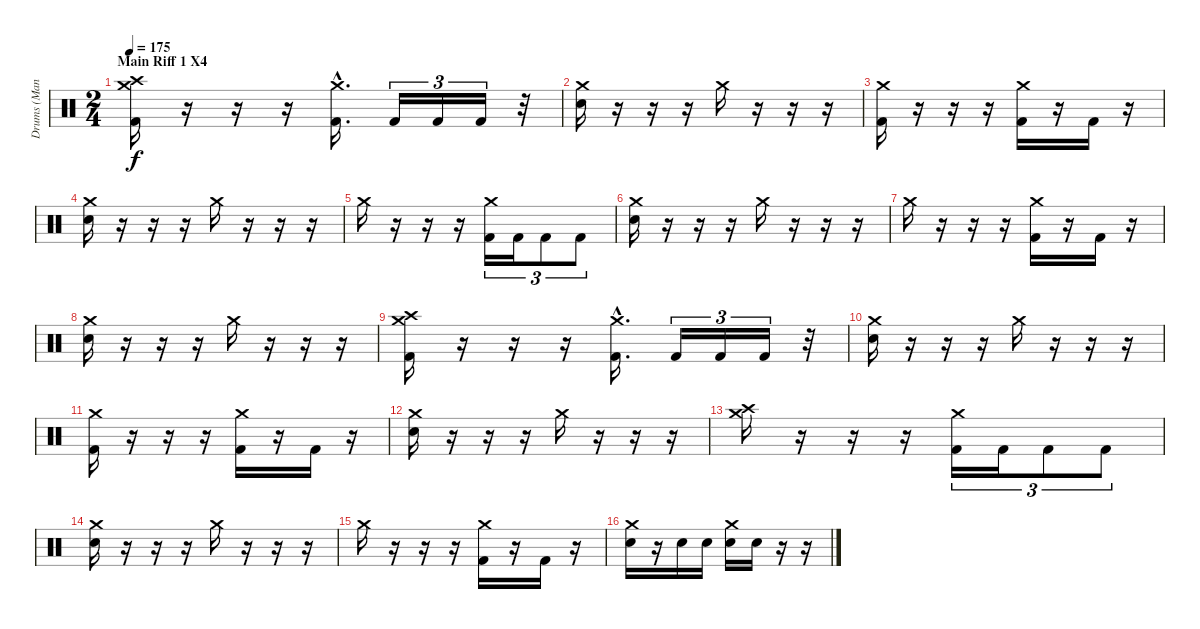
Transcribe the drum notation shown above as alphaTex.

\track ("Drums (Mancino)" "Drums (Man") {instrument percussion}
\staff {score}
\articulation defaults
\ts (2 4)
\section ("" "Main Riff 1 X4")
\tempo 175
\clef neutral
\ks c
("Crash medium (hit)" "Crash high (hit)" "Kick (hit) 2").16{dy f} r.16 r.16 r.16 ("Crash medium (hit)"{hac} "Kick (hit) 2"{hac}).16{d} "Kick (hit) 2".16{tu (3 2)} "Kick (hit) 2".16{tu (3 2)} "Kick (hit) 2".16{tu (3 2)} r.32 |
("Crash medium (hit)" "Electric Snare (hit)").16 r.16 r.16 r.16 "Crash medium (hit)".16 r.16 r.16 r.16 |
("Crash medium (hit)" "Kick (hit) 2").16 r.16 r.16 r.16 ("Crash medium (hit)" "Kick (hit) 2").16 r.16 "Kick (hit) 2".16 r.16 |
("Crash medium (hit)" "Electric Snare (hit)").16 r.16 r.16 r.16 "Crash medium (hit)".16 r.16 r.16 r.16 |
"Crash medium (hit)".16 r.16 r.16 r.16 ("Crash medium (hit)" "Kick (hit) 2").16{tu (3 2)} "Kick (hit) 2".16{tu (3 2)} "Kick (hit) 2".8{tu (3 2)} "Kick (hit) 2".8{tu (3 2)} |
("Crash medium (hit)" "Electric Snare (hit)").16 r.16 r.16 r.16 "Crash medium (hit)".16 r.16 r.16 r.16 |
"Crash medium (hit)".16 r.16 r.16 r.16 ("Crash medium (hit)" "Kick (hit) 2").16 r.16 "Kick (hit) 2".16 r.16 |
("Crash medium (hit)" "Electric Snare (hit)").16 r.16 r.16 r.16 "Crash medium (hit)".16 r.16 r.16 r.16 |
("Crash medium (hit)" "Crash high (hit)" "Kick (hit) 2").16 r.16 r.16 r.16 ("Crash medium (hit)"{hac} "Kick (hit) 2"{hac}).16{d} "Kick (hit) 2".16{tu (3 2)} "Kick (hit) 2".16{tu (3 2)} "Kick (hit) 2".16{tu (3 2)} r.32 |
("Crash medium (hit)" "Electric Snare (hit)").16 r.16 r.16 r.16 "Crash medium (hit)".16 r.16 r.16 r.16 |
("Crash medium (hit)" "Kick (hit) 2").16 r.16 r.16 r.16 ("Crash medium (hit)" "Kick (hit) 2").16 r.16 "Kick (hit) 2".16 r.16 |
("Crash medium (hit)" "Electric Snare (hit)").16 r.16 r.16 r.16 "Crash medium (hit)".16 r.16 r.16 r.16 |
("Crash medium (hit)" "Crash high (hit)").16 r.16 r.16 r.16 ("Crash medium (hit)" "Kick (hit) 2").16{tu (3 2)} "Kick (hit) 2".16{tu (3 2)} "Kick (hit) 2".8{tu (3 2)} "Kick (hit) 2".8{tu (3 2)} |
("Crash medium (hit)" "Electric Snare (hit)").16 r.16 r.16 r.16 "Crash medium (hit)".16 r.16 r.16 r.16 |
"Crash medium (hit)".16 r.16 r.16 r.16 ("Crash medium (hit)" "Kick (hit) 2").16 r.16 "Kick (hit) 2".16 r.16 |
("Crash medium (hit)" "Electric Snare (hit)").16 r.16 "Electric Snare (hit)".16 "Electric Snare (hit)".16 ("Crash medium (hit)" "Electric Snare (hit)").16 "Electric Snare (hit)".16 r.16 r.16
